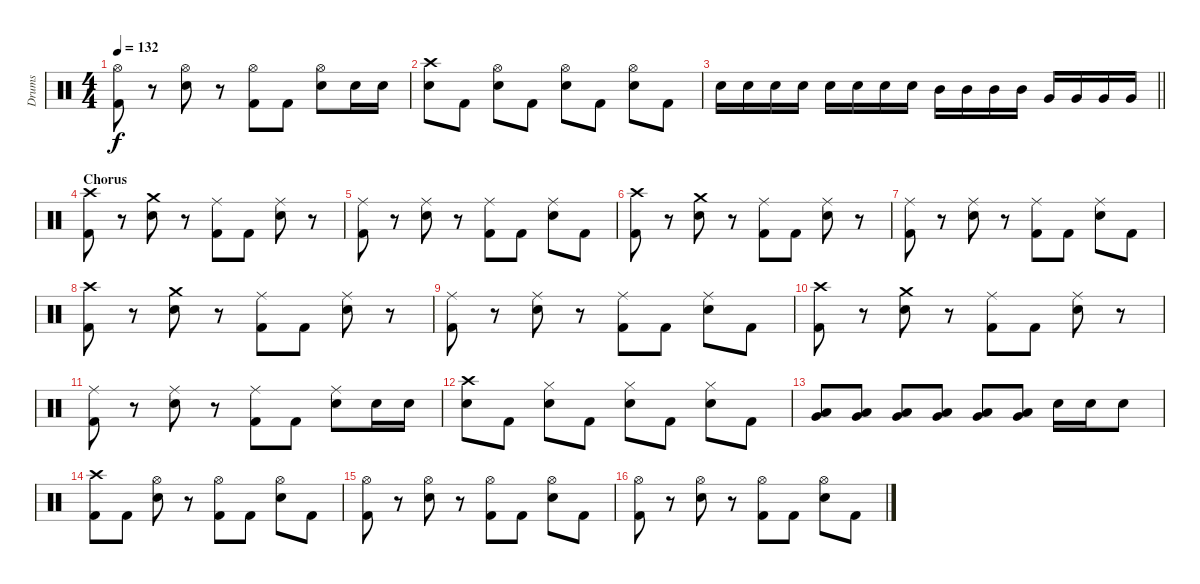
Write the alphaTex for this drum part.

\track ("Drums" "Drums") {instrument percussion}
\staff {score}
\articulation defaults
\ts (4 4)
\tempo 132
\clef neutral
\ks c
("Hi-Hat (open)" "Kick (hit) 2").8{dy f} r.8 ("Hi-Hat (open)" "Electric Snare (hit)").8 r.8 ("Hi-Hat (open)" "Kick (hit) 2").8 "Kick (hit) 2".8 ("Hi-Hat (open)" "Electric Snare (hit)").8 "Electric Snare (hit)".16 "Electric Snare (hit)".16 |
("Crash high (hit)" "Electric Snare (hit)").8 "Kick (hit) 2".8 ("Hi-Hat (open)" "Electric Snare (hit)").8 "Kick (hit) 2".8 ("Hi-Hat (open)" "Electric Snare (hit)").8 "Kick (hit) 2".8 ("Hi-Hat (open)" "Electric Snare (hit)").8 "Kick (hit) 2".8 |
\barLineRight lightlight "Electric Snare (hit)".16 "Electric Snare (hit)".16 "Electric Snare (hit)".16 "Electric Snare (hit)".16 "Electric Snare (hit)".16 "Electric Snare (hit)".16 "Electric Snare (hit)".16 "Electric Snare (hit)".16 "Mid Tom (hit)".16 "Mid Tom (hit)".16 "Mid Tom (hit)".16 "Mid Tom (hit)".16 "Very Low Tom (hit)".16 "Very Low Tom (hit)".16 "Very Low Tom (hit)".16 "Very Low Tom (hit)".16
|
\section ("" "Chorus")
("Crash high (hit)" "Kick (hit) 2").8 r.8 ("Crash medium (hit)" "Electric Snare (hit)").8 r.8 ("Ride (middle)" "Kick (hit) 2").8 "Kick (hit) 2".8 ("Ride (middle)" "Electric Snare (hit)").8 r.8 |
("Ride (middle)" "Kick (hit) 2").8 r.8 ("Ride (middle)" "Electric Snare (hit)").8 r.8 ("Ride (middle)" "Kick (hit) 2").8 "Kick (hit) 2".8 ("Ride (middle)" "Electric Snare (hit)").8 "Kick (hit) 2".8 |
("Crash high (hit)" "Kick (hit) 2").8 r.8 ("Crash medium (hit)" "Electric Snare (hit)").8 r.8 ("Ride (middle)" "Kick (hit) 2").8 "Kick (hit) 2".8 ("Ride (middle)" "Electric Snare (hit)").8 r.8 |
("Ride (middle)" "Kick (hit) 2").8 r.8 ("Ride (middle)" "Electric Snare (hit)").8 r.8 ("Ride (middle)" "Kick (hit) 2").8 "Kick (hit) 2".8 ("Ride (middle)" "Electric Snare (hit)").8 "Kick (hit) 2".8 |
("Crash high (hit)" "Kick (hit) 2").8 r.8 ("Crash medium (hit)" "Electric Snare (hit)").8 r.8 ("Ride (middle)" "Kick (hit) 2").8 "Kick (hit) 2".8 ("Ride (middle)" "Electric Snare (hit)").8 r.8 |
("Ride (middle)" "Kick (hit) 2").8 r.8 ("Ride (middle)" "Electric Snare (hit)").8 r.8 ("Ride (middle)" "Kick (hit) 2").8 "Kick (hit) 2".8 ("Ride (middle)" "Electric Snare (hit)").8 "Kick (hit) 2".8 |
("Crash high (hit)" "Kick (hit) 2").8 r.8 ("Crash medium (hit)" "Electric Snare (hit)").8 r.8 ("Ride (middle)" "Kick (hit) 2").8 "Kick (hit) 2".8 ("Ride (middle)" "Electric Snare (hit)").8 r.8 |
("Ride (middle)" "Kick (hit) 2").8 r.8 ("Ride (middle)" "Electric Snare (hit)").8 r.8 ("Ride (middle)" "Kick (hit) 2").8 "Kick (hit) 2".8 ("Ride (middle)" "Electric Snare (hit)").8 "Electric Snare (hit)".16 "Electric Snare (hit)".16 |
("Crash high (hit)" "Electric Snare (hit)").8 "Kick (hit) 2".8 ("Hi-Hat (closed)" "Electric Snare (hit)").8 "Kick (hit) 2".8 ("Hi-Hat (closed)" "Electric Snare (hit)").8 "Kick (hit) 2".8 ("Hi-Hat (closed)" "Electric Snare (hit)").8 "Kick (hit) 2".8 |
("Very Low Tom (hit)" "Low Tom (hit)").8 ("Very Low Tom (hit)" "Low Tom (hit)").8 ("Very Low Tom (hit)" "Low Tom (hit)").8 ("Very Low Tom (hit)" "Low Tom (hit)").8 ("Very Low Tom (hit)" "Low Tom (hit)").8 ("Very Low Tom (hit)" "Low Tom (hit)").8 "Electric Snare (hit)".16 "Electric Snare (hit)".16 "Electric Snare (hit)".8 |
("Crash high (hit)" "Kick (hit) 2").8 "Kick (hit) 2".8 ("Hi-Hat (open)" "Electric Snare (hit)").8 r.8 ("Hi-Hat (open)" "Kick (hit) 2").8 "Kick (hit) 2".8 ("Hi-Hat (open)" "Electric Snare (hit)").8 "Kick (hit) 2".8 |
("Hi-Hat (open)" "Kick (hit) 2").8 r.8 ("Hi-Hat (open)" "Electric Snare (hit)").8 r.8 ("Hi-Hat (open)" "Kick (hit) 2").8 "Kick (hit) 2".8 ("Hi-Hat (open)" "Electric Snare (hit)").8 "Kick (hit) 2".8 |
("Hi-Hat (open)" "Kick (hit) 2").8 r.8 ("Hi-Hat (open)" "Electric Snare (hit)").8 r.8 ("Hi-Hat (open)" "Kick (hit) 2").8 "Kick (hit) 2".8 ("Hi-Hat (open)" "Electric Snare (hit)").8 "Kick (hit) 2".8
